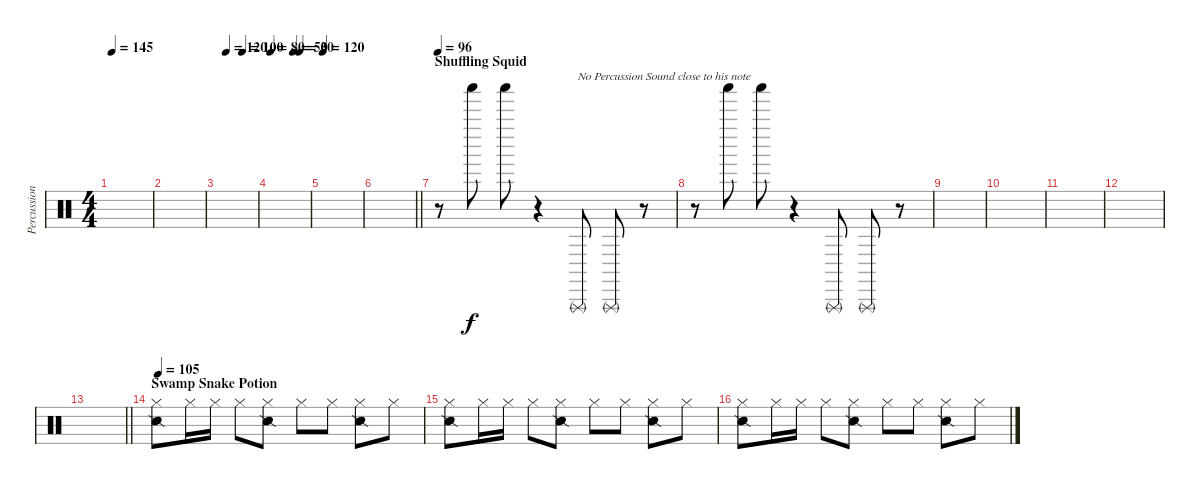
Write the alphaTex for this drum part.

\track ("Percussion" "Percussion") {instrument percussion}
\staff {score}
\articulation defaults
\ts (4 4)
\tempo 145
\clef neutral
\ks c
|
|
\tempo (120 0.20833333333333334)
\tempo (100 0.625)
|
\tempo 80
\tempo (50 0.5833333333333334)
\tempo (30 0.75)
|
\tempo 120
|
\barLineRight lightlight
|
\section ("" "Shuffling Squid")
\tempo 96
r.8 "Shaker (hit)".8 "Shaker (hit)".8 r.4 "Triangle (rnute)".8{txt "No Percussion Sound close to his note"} "Triangle (rnute)".8 r.8 |
r.8 "Shaker (hit)".8 "Shaker (hit)".8 r.4 "Triangle (rnute)".8 "Triangle (rnute)".8 r.8 |
|
|
|
|
\barLineRight lightlight
|
\section ("" "Swamp Snake Potion")
\tempo 105
("Hi-Hat (closed)" "Snare (side stick) 2").8 "Hi-Hat (closed)".16 "Hi-Hat (closed)".16 "Hi-Hat (closed)".8 ("Hi-Hat (closed)" "Snare (side stick) 2").8 "Hi-Hat (closed)".8 "Hi-Hat (closed)".8 ("Hi-Hat (closed)" "Snare (side stick) 2").8 "Hi-Hat (closed)".8 |
("Hi-Hat (closed)" "Snare (side stick) 2").8 "Hi-Hat (closed)".16 "Hi-Hat (closed)".16 "Hi-Hat (closed)".8 ("Hi-Hat (closed)" "Snare (side stick) 2").8 "Hi-Hat (closed)".8 "Hi-Hat (closed)".8 ("Hi-Hat (closed)" "Snare (side stick) 2").8 "Hi-Hat (closed)".8 |
("Hi-Hat (closed)" "Snare (side stick) 2").8 "Hi-Hat (closed)".16 "Hi-Hat (closed)".16 "Hi-Hat (closed)".8 ("Hi-Hat (closed)" "Snare (side stick) 2").8 "Hi-Hat (closed)".8 "Hi-Hat (closed)".8 ("Hi-Hat (closed)" "Snare (side stick) 2").8 "Hi-Hat (closed)".8
